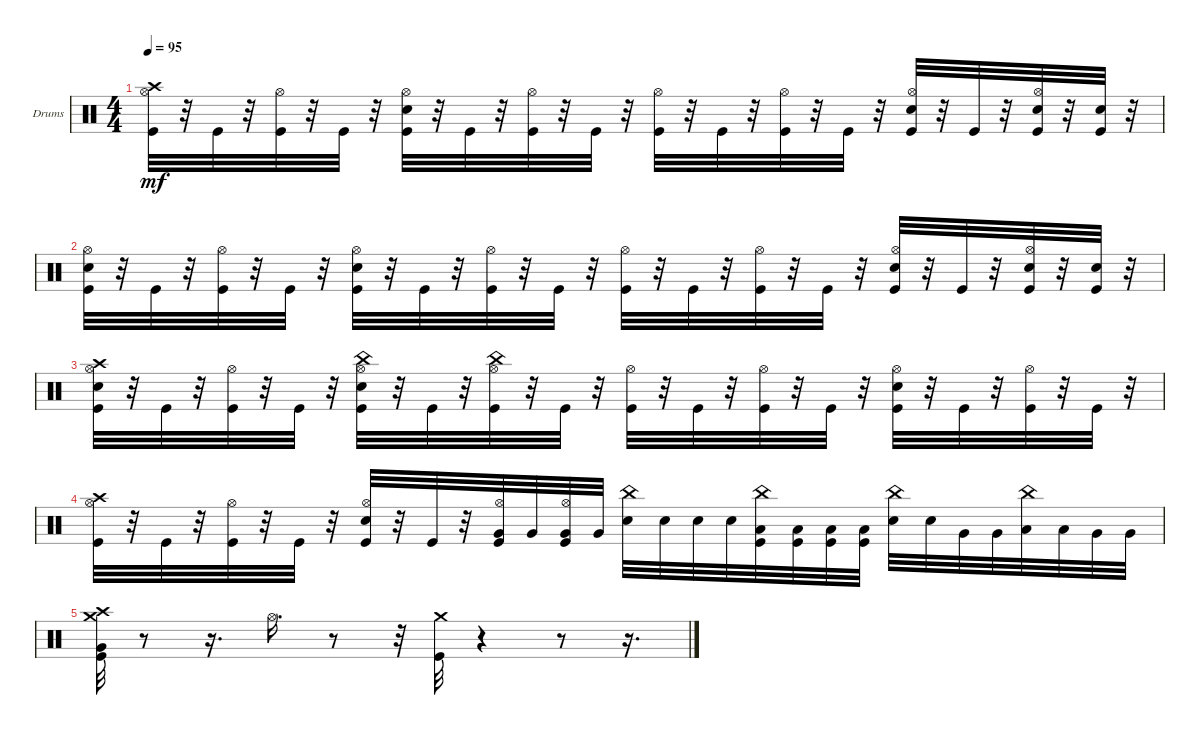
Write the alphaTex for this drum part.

\bracketExtendMode groupsimilarinstruments
\firstSystemTrackNameOrientation horizontal
\otherSystemsTrackNameOrientation horizontal
\track ("Drums" "Drums") {instrument percussion}
\staff {score}
\articulation defaults
\ts (4 4)
\tempo 95
\clef neutral
\ks c
("Kick (hit)" "Hi-Hat (open)" "Crash high (hit)").32{dy mf} r.32 "Kick (hit)".32 r.32 ("Kick (hit)" "Hi-Hat (open)").32 r.32 "Kick (hit)".32 r.32 ("Kick (hit)" "Snare (hit) 2" "Hi-Hat (open)").32 r.32 "Kick (hit)".32 r.32 ("Kick (hit)" "Hi-Hat (open)").32 r.32 "Kick (hit)".32 r.32 ("Kick (hit)" "Hi-Hat (open)").32 r.32 "Kick (hit)".32 r.32 ("Kick (hit)" "Hi-Hat (open)").32 r.32 "Kick (hit)".32 r.32 ("Kick (hit)" "Snare (hit) 2" "Hi-Hat (open)").32 r.32 "Kick (hit)".32 r.32 ("Kick (hit)" "Snare (hit) 2" "Hi-Hat (open)").32 r.32 ("Kick (hit)" "Snare (hit) 2").32 r.32 |
("Kick (hit)" "Snare (hit) 2" "Hi-Hat (open)").32 r.32 "Kick (hit)".32 r.32 ("Kick (hit)" "Hi-Hat (open)").32 r.32 "Kick (hit)".32 r.32 ("Kick (hit)" "Snare (hit) 2" "Hi-Hat (open)").32 r.32 "Kick (hit)".32 r.32 ("Kick (hit)" "Hi-Hat (open)").32 r.32 "Kick (hit)".32 r.32 ("Kick (hit)" "Hi-Hat (open)").32 r.32 "Kick (hit)".32 r.32 ("Kick (hit)" "Hi-Hat (open)").32 r.32 "Kick (hit)".32 r.32 ("Kick (hit)" "Snare (hit) 2" "Hi-Hat (open)").32 r.32 "Kick (hit)".32 r.32 ("Kick (hit)" "Snare (hit) 2" "Hi-Hat (open)").32 r.32 ("Kick (hit)" "Snare (hit) 2").32 r.32 |
("Kick (hit)" "Snare (hit) 2" "Hi-Hat (open)" "Crash high (hit)").32 r.32 "Kick (hit)".32 r.32 ("Kick (hit)" "Hi-Hat (open)").32 r.32 "Kick (hit)".32 r.32 ("Kick (hit)" "Snare (hit) 2" "Hi-Hat (open)" "China (hit)").32 r.32 "Kick (hit)".32 r.32 ("China (hit)" "Kick (hit)" "Hi-Hat (open)").32 r.32 "Kick (hit)".32 r.32 ("Kick (hit)" "Hi-Hat (open)").32 r.32 "Kick (hit)".32 r.32 ("Kick (hit)" "Hi-Hat (open)").32 r.32 "Kick (hit)".32 r.32 ("Kick (hit)" "Snare (hit) 2" "Hi-Hat (open)").32 r.32 "Kick (hit)".32 r.32 ("Kick (hit)" "Hi-Hat (open)").32 r.32 "Kick (hit)".32 r.32 |
("Kick (hit)" "Hi-Hat (open)" "Crash high (hit)").32 r.32 "Kick (hit)".32 r.32 ("Kick (hit)" "Hi-Hat (open)").32 r.32 "Kick (hit)".32 r.32 ("Kick (hit)" "Snare (hit) 2" "Hi-Hat (open)").32 r.32 "Kick (hit)".32 r.32 ("Kick (hit)" "Hi-Hat (open)" "Very Low Tom (hit)").32 "Very Low Tom (hit)".32 ("Very Low Tom (hit)" "Hi-Hat (open)" "Kick (hit)").32 "Very Low Tom (hit)".32 ("Snare (hit) 2" "China (hit)").32 "Snare (hit) 2".32 "Snare (hit) 2".32 "Snare (hit) 2".32 ("Kick (hit)" "Low Tom (hit)" "China (hit)").32 ("Kick (hit)" "Low Tom (hit)").32 ("Low Tom (hit)" "Kick (hit)").32 ("Low Tom (hit)" "Kick (hit)").32 ("Snare (hit) 2" "China (hit)").32 "Snare (hit) 2".32 "Very Low Tom (hit)".32 "Very Low Tom (hit)".32 ("Low Tom (hit)" "China (hit)").32 "Low Tom (hit)".32 "Very Low Tom (hit)".32 "Very Low Tom (hit)".32 |
("Crash medium (hit)" "Crash high (hit)" "Kick (hit)" "Very Low Tom (hit)").32 r.8 r.16{d} "Hi-Hat (open)".16{d} r.8 r.32 ("Crash medium (hit)" "Kick (hit)").32 r.4 r.8 r.16{d}
